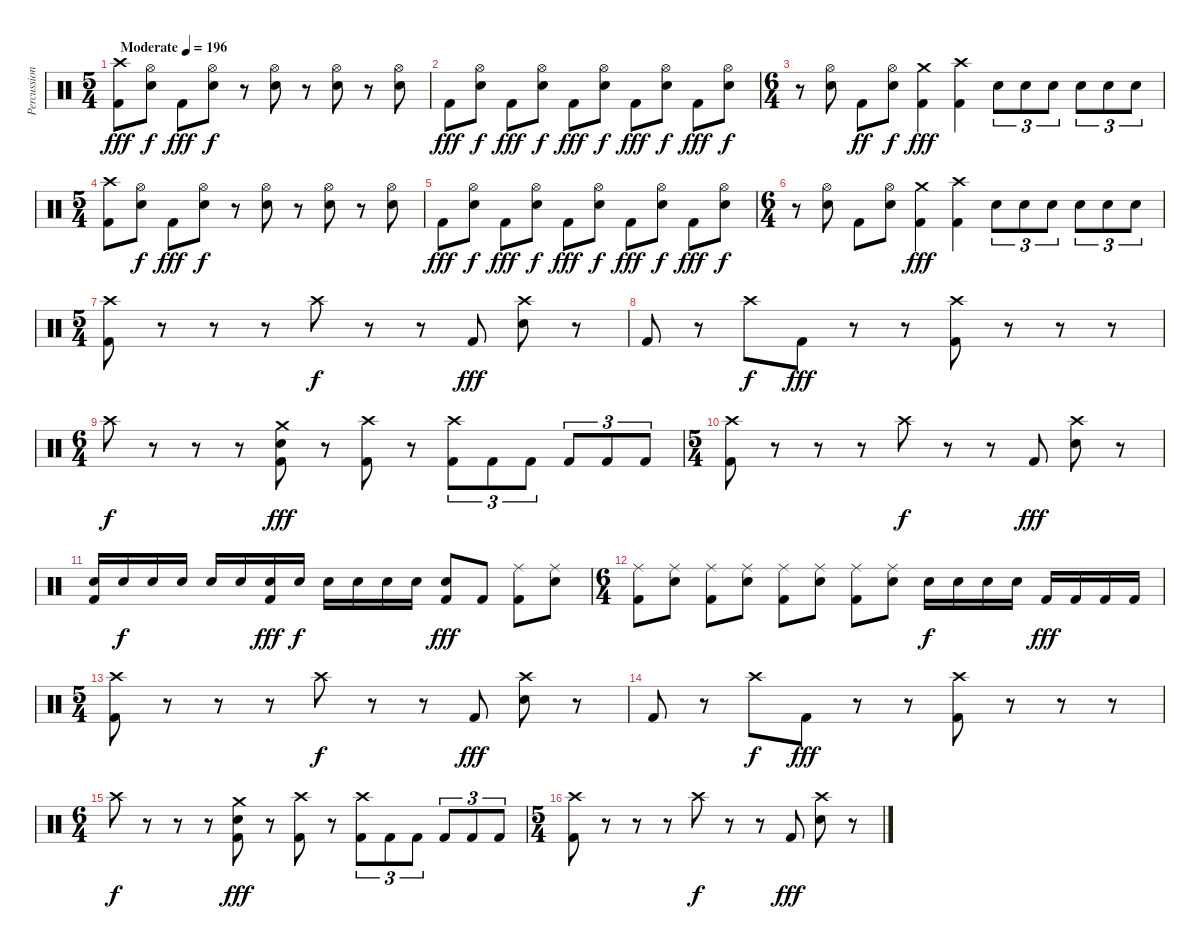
\track ("Percussion" "Percussion") {instrument percussion}
\staff {score}
\articulation defaults
\ts (5 4)
\tempo (196 "Moderate")
\clef neutral
\ks c
("Crash high (hit)" "Kick (hit) 2").8{dy fff} ("Hi-Hat (open)" "Electric Snare (hit)").8{dy f} "Kick (hit) 2".8{dy fff} ("Hi-Hat (open)" "Electric Snare (hit)").8{dy f} r.8 ("Hi-Hat (open)" "Electric Snare (hit)").8 r.8 ("Hi-Hat (open)" "Electric Snare (hit)").8 r.8 ("Hi-Hat (open)" "Electric Snare (hit)").8 |
"Kick (hit) 2".8{dy fff} ("Hi-Hat (open)" "Electric Snare (hit)").8{dy f} "Kick (hit) 2".8{dy fff} ("Hi-Hat (open)" "Electric Snare (hit)").8{dy f} "Kick (hit) 2".8{dy fff} ("Hi-Hat (open)" "Electric Snare (hit)").8{dy f} "Kick (hit) 2".8{dy fff} ("Hi-Hat (open)" "Electric Snare (hit)").8{dy f} "Kick (hit) 2".8{dy fff} ("Hi-Hat (open)" "Electric Snare (hit)").8{dy f} |
\ts (6 4)
r.8 ("Hi-Hat (open)" "Electric Snare (hit)").8 "Kick (hit) 2".8{dy ff} ("Hi-Hat (open)" "Electric Snare (hit)").8{dy f} ("Crash medium (hit)" "Kick (hit) 2").4{dy fff} ("Crash high (hit)" "Kick (hit) 2").4 "Electric Snare (hit)".8{tu (3 2)} "Electric Snare (hit)".8{tu (3 2)} "Electric Snare (hit)".8{tu (3 2)} "Electric Snare (hit)".8{tu (3 2)} "Electric Snare (hit)".8{tu (3 2)} "Electric Snare (hit)".8{tu (3 2)} |
\ts (5 4)
("Crash high (hit)" "Kick (hit) 2").8 ("Hi-Hat (open)" "Electric Snare (hit)").8{dy f} "Kick (hit) 2".8{dy fff} ("Hi-Hat (open)" "Electric Snare (hit)").8{dy f} r.8 ("Hi-Hat (open)" "Electric Snare (hit)").8 r.8 ("Hi-Hat (open)" "Electric Snare (hit)").8 r.8 ("Hi-Hat (open)" "Electric Snare (hit)").8 |
"Kick (hit) 2".8{dy fff} ("Hi-Hat (open)" "Electric Snare (hit)").8{dy f} "Kick (hit) 2".8{dy fff} ("Hi-Hat (open)" "Electric Snare (hit)").8{dy f} "Kick (hit) 2".8{dy fff} ("Hi-Hat (open)" "Electric Snare (hit)").8{dy f} "Kick (hit) 2".8{dy fff} ("Hi-Hat (open)" "Electric Snare (hit)").8{dy f} "Kick (hit) 2".8{dy fff} ("Hi-Hat (open)" "Electric Snare (hit)").8{dy f} |
\ts (6 4)
r.8 ("Hi-Hat (open)" "Electric Snare (hit)").8 "Kick (hit) 2".8 ("Hi-Hat (open)" "Electric Snare (hit)").8 ("Crash medium (hit)" "Kick (hit) 2").4{dy fff} ("Crash high (hit)" "Kick (hit) 2").4 "Electric Snare (hit)".8{tu (3 2)} "Electric Snare (hit)".8{tu (3 2)} "Electric Snare (hit)".8{tu (3 2)} "Electric Snare (hit)".8{tu (3 2)} "Electric Snare (hit)".8{tu (3 2)} "Electric Snare (hit)".8{tu (3 2)} |
\ts (5 4)
("Crash high (hit)" "Kick (hit) 2").8 r.8 r.8 r.8 "Crash high (hit)".8{dy f} r.8 r.8 "Kick (hit) 2".8{dy fff} ("Crash high (hit)" "Electric Snare (hit)").8 r.8 |
"Kick (hit) 2".8 r.8 "Crash high (hit)".8{dy f} "Kick (hit) 2".8{dy fff} r.8 r.8 ("Crash high (hit)" "Kick (hit) 2").8 r.8 r.8 r.8 |
\ts (6 4)
"Crash high (hit)".8{dy f} r.8 r.8 r.8 ("Crash medium (hit)" "Electric Snare (hit)" "Kick (hit) 2").8{dy fff} r.8 ("Crash high (hit)" "Kick (hit) 2").8 r.8 ("Crash high (hit)" "Kick (hit) 2").8{tu (3 2)} "Kick (hit) 2".8{tu (3 2)} "Kick (hit) 2".8{tu (3 2)} "Kick (hit) 2".8{tu (3 2)} "Kick (hit) 2".8{tu (3 2)} "Kick (hit) 2".8{tu (3 2)} |
\ts (5 4)
("Crash high (hit)" "Kick (hit) 2").8 r.8 r.8 r.8 "Crash high (hit)".8{dy f} r.8 r.8 "Kick (hit) 2".8{dy fff} ("Crash high (hit)" "Electric Snare (hit)").8 r.8 |
("Electric Snare (hit)" "Kick (hit) 2").16 "Electric Snare (hit)".16{dy f} "Electric Snare (hit)".16 "Electric Snare (hit)".16 "Electric Snare (hit)".16 "Electric Snare (hit)".16 ("Electric Snare (hit)" "Kick (hit) 2").16{dy fff} "Electric Snare (hit)".16{dy f} "Electric Snare (hit)".16 "Electric Snare (hit)".16 "Electric Snare (hit)".16 "Electric Snare (hit)".16 ("Electric Snare (hit)" "Kick (hit) 2").8{dy fff} "Kick (hit) 2".8 ("Ride (middle)" "Kick (hit) 2").8 ("Ride (middle)" "Electric Snare (hit)").8 |
\ts (6 4)
("Ride (middle)" "Kick (hit) 2").8 ("Ride (middle)" "Electric Snare (hit)").8 ("Ride (middle)" "Kick (hit) 2").8 ("Ride (middle)" "Electric Snare (hit)").8 ("Ride (middle)" "Kick (hit) 2").8 ("Ride (middle)" "Electric Snare (hit)").8 ("Ride (middle)" "Kick (hit) 2").8 ("Ride (middle)" "Electric Snare (hit)").8 "Electric Snare (hit)".16{dy f} "Electric Snare (hit)".16 "Electric Snare (hit)".16 "Electric Snare (hit)".16 "Kick (hit) 2".16{dy fff} "Kick (hit) 2".16 "Kick (hit) 2".16 "Kick (hit) 2".16 |
\ts (5 4)
("Crash high (hit)" "Kick (hit) 2").8 r.8 r.8 r.8 "Crash high (hit)".8{dy f} r.8 r.8 "Kick (hit) 2".8{dy fff} ("Crash high (hit)" "Electric Snare (hit)").8 r.8 |
"Kick (hit) 2".8 r.8 "Crash high (hit)".8{dy f} "Kick (hit) 2".8{dy fff} r.8 r.8 ("Crash high (hit)" "Kick (hit) 2").8 r.8 r.8 r.8 |
\ts (6 4)
"Crash high (hit)".8{dy f} r.8 r.8 r.8 ("Crash medium (hit)" "Electric Snare (hit)" "Kick (hit) 2").8{dy fff} r.8 ("Crash high (hit)" "Kick (hit) 2").8 r.8 ("Crash high (hit)" "Kick (hit) 2").8{tu (3 2)} "Kick (hit) 2".8{tu (3 2)} "Kick (hit) 2".8{tu (3 2)} "Kick (hit) 2".8{tu (3 2)} "Kick (hit) 2".8{tu (3 2)} "Kick (hit) 2".8{tu (3 2)} |
\ts (5 4)
("Crash high (hit)" "Kick (hit) 2").8 r.8 r.8 r.8 "Crash high (hit)".8{dy f} r.8 r.8 "Kick (hit) 2".8{dy fff} ("Crash high (hit)" "Electric Snare (hit)").8 r.8
